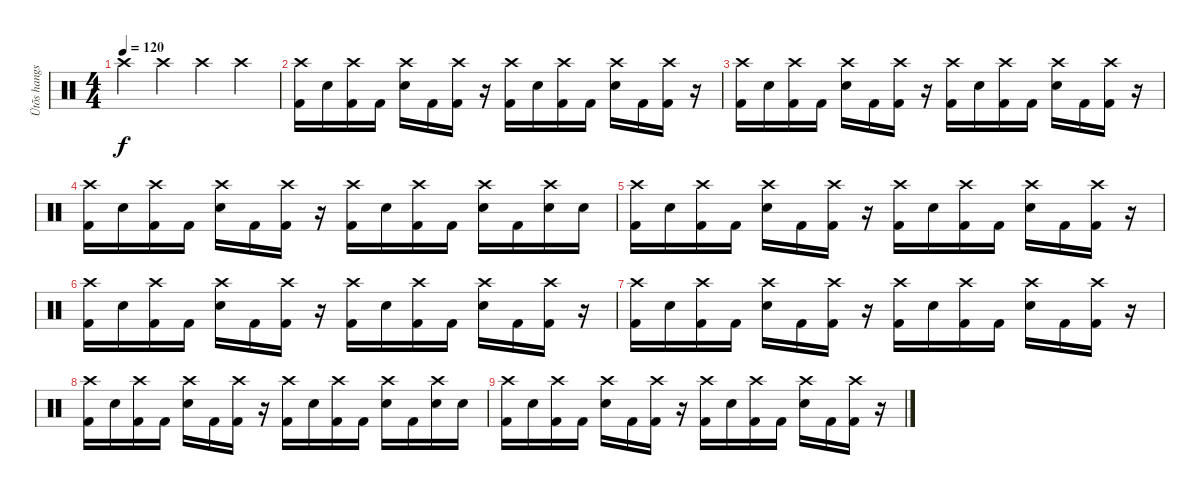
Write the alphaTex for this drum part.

\track ("Ütõs hangszer" "Ütõs hangs") {instrument percussion}
\staff {score}
\articulation defaults
\ts (4 4)
\tempo 120
\clef neutral
\ks c "Crash high (hit)".4{dy f} "Crash high (hit)".4 "Crash high (hit)".4 "Crash high (hit)".4
|
("Crash high (hit)" "Kick (hit) 2").16 "Electric Snare (hit)".16 ("Crash high (hit)" "Kick (hit) 2").16 "Kick (hit) 2".16 ("Crash high (hit)" "Electric Snare (hit)").16 "Kick (hit) 2".16 ("Crash high (hit)" "Kick (hit) 2").16 r.16 ("Crash high (hit)" "Kick (hit) 2").16 "Electric Snare (hit)".16 ("Crash high (hit)" "Kick (hit) 2").16 "Kick (hit) 2".16 ("Crash high (hit)" "Electric Snare (hit)").16 "Kick (hit) 2".16 ("Crash high (hit)" "Kick (hit) 2").16 r.16 |
("Crash high (hit)" "Kick (hit) 2").16 "Electric Snare (hit)".16 ("Crash high (hit)" "Kick (hit) 2").16 "Kick (hit) 2".16 ("Crash high (hit)" "Electric Snare (hit)").16 "Kick (hit) 2".16 ("Crash high (hit)" "Kick (hit) 2").16 r.16 ("Crash high (hit)" "Kick (hit) 2").16 "Electric Snare (hit)".16 ("Crash high (hit)" "Kick (hit) 2").16 "Kick (hit) 2".16 ("Crash high (hit)" "Electric Snare (hit)").16 "Kick (hit) 2".16 ("Crash high (hit)" "Kick (hit) 2").16 r.16 |
("Crash high (hit)" "Kick (hit) 2").16 "Electric Snare (hit)".16 ("Crash high (hit)" "Kick (hit) 2").16 "Kick (hit) 2".16 ("Crash high (hit)" "Electric Snare (hit)").16 "Kick (hit) 2".16 ("Crash high (hit)" "Kick (hit) 2").16 r.16 ("Crash high (hit)" "Kick (hit) 2").16 "Electric Snare (hit)".16 ("Crash high (hit)" "Kick (hit) 2").16 "Kick (hit) 2".16 ("Crash high (hit)" "Electric Snare (hit)").16 "Kick (hit) 2".16 ("Crash high (hit)" "Electric Snare (hit)").16 "Electric Snare (hit)".16 |
("Crash high (hit)" "Kick (hit) 2").16 "Electric Snare (hit)".16 ("Crash high (hit)" "Kick (hit) 2").16 "Kick (hit) 2".16 ("Crash high (hit)" "Electric Snare (hit)").16 "Kick (hit) 2".16 ("Crash high (hit)" "Kick (hit) 2").16 r.16 ("Crash high (hit)" "Kick (hit) 2").16 "Electric Snare (hit)".16 ("Crash high (hit)" "Kick (hit) 2").16 "Kick (hit) 2".16 ("Crash high (hit)" "Electric Snare (hit)").16 "Kick (hit) 2".16 ("Crash high (hit)" "Kick (hit) 2").16 r.16 |
("Crash high (hit)" "Kick (hit) 2").16 "Electric Snare (hit)".16 ("Crash high (hit)" "Kick (hit) 2").16 "Kick (hit) 2".16 ("Crash high (hit)" "Electric Snare (hit)").16 "Kick (hit) 2".16 ("Crash high (hit)" "Kick (hit) 2").16 r.16 ("Crash high (hit)" "Kick (hit) 2").16 "Electric Snare (hit)".16 ("Crash high (hit)" "Kick (hit) 2").16 "Kick (hit) 2".16 ("Crash high (hit)" "Electric Snare (hit)").16 "Kick (hit) 2".16 ("Crash high (hit)" "Kick (hit) 2").16 r.16 |
("Crash high (hit)" "Kick (hit) 2").16 "Electric Snare (hit)".16 ("Crash high (hit)" "Kick (hit) 2").16 "Kick (hit) 2".16 ("Crash high (hit)" "Electric Snare (hit)").16 "Kick (hit) 2".16 ("Crash high (hit)" "Kick (hit) 2").16 r.16 ("Crash high (hit)" "Kick (hit) 2").16 "Electric Snare (hit)".16 ("Crash high (hit)" "Kick (hit) 2").16 "Kick (hit) 2".16 ("Crash high (hit)" "Electric Snare (hit)").16 "Kick (hit) 2".16 ("Crash high (hit)" "Kick (hit) 2").16 r.16 |
("Crash high (hit)" "Kick (hit) 2").16 "Electric Snare (hit)".16 ("Crash high (hit)" "Kick (hit) 2").16 "Kick (hit) 2".16 ("Crash high (hit)" "Electric Snare (hit)").16 "Kick (hit) 2".16 ("Crash high (hit)" "Kick (hit) 2").16 r.16 ("Crash high (hit)" "Kick (hit) 2").16 "Electric Snare (hit)".16 ("Crash high (hit)" "Kick (hit) 2").16 "Kick (hit) 2".16 ("Crash high (hit)" "Electric Snare (hit)").16 "Kick (hit) 2".16 ("Crash high (hit)" "Electric Snare (hit)").16 "Electric Snare (hit)".16 |
("Crash high (hit)" "Kick (hit) 2").16 "Electric Snare (hit)".16 ("Crash high (hit)" "Kick (hit) 2").16 "Kick (hit) 2".16 ("Crash high (hit)" "Electric Snare (hit)").16 "Kick (hit) 2".16 ("Crash high (hit)" "Kick (hit) 2").16 r.16 ("Crash high (hit)" "Kick (hit) 2").16 "Electric Snare (hit)".16 ("Crash high (hit)" "Kick (hit) 2").16 "Kick (hit) 2".16 ("Crash high (hit)" "Electric Snare (hit)").16 "Kick (hit) 2".16 ("Crash high (hit)" "Kick (hit) 2").16 r.16
